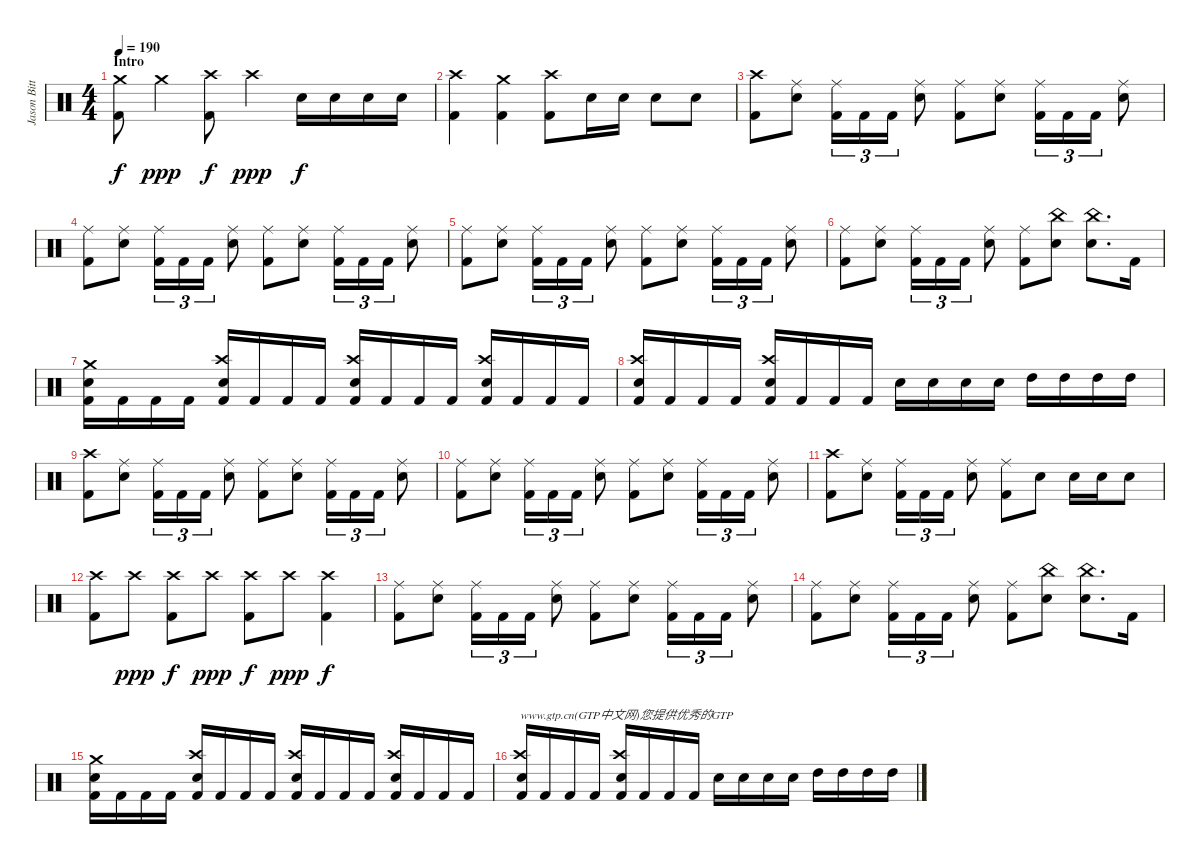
\track ("Jason Bittner" "Jason Bitt") {instrument percussion}
\staff {score}
\articulation defaults
\ts (4 4)
\section ("" "Intro")
\tempo 190
\clef neutral
\ks c
("Crash medium (hit)" "Kick (hit) 2").8{dy f} "Crash medium (hit)".4{dy ppp} ("Crash high (hit)" "Kick (hit) 2").8{dy f} "Crash high (hit)".4{dy ppp} "Electric Snare (hit)".16{dy f} "Electric Snare (hit)".16 "Electric Snare (hit)".16 "Electric Snare (hit)".16 |
("Crash high (hit)" "Kick (hit) 2").4 ("Crash medium (hit)" "Kick (hit) 2").4 ("Crash high (hit)" "Kick (hit) 2").8 "Electric Snare (hit)".16 "Electric Snare (hit)".16 "Electric Snare (hit)".8 "Electric Snare (hit)".8 |
("Crash high (hit)" "Kick (hit) 2").8 ("Ride (middle)" "Electric Snare (hit)").8 ("Ride (middle)" "Kick (hit) 2").16{tu (3 2)} "Kick (hit) 2".16{tu (3 2)} "Kick (hit) 2".16{tu (3 2)} ("Ride (middle)" "Electric Snare (hit)").8 ("Ride (middle)" "Kick (hit) 2").8 ("Ride (middle)" "Electric Snare (hit)").8 ("Ride (middle)" "Kick (hit) 2").16{tu (3 2)} "Kick (hit) 2".16{tu (3 2)} "Kick (hit) 2".16{tu (3 2)} ("Ride (middle)" "Electric Snare (hit)").8 |
("Ride (middle)" "Kick (hit) 2").8 ("Ride (middle)" "Electric Snare (hit)").8 ("Ride (middle)" "Kick (hit) 2").16{tu (3 2)} "Kick (hit) 2".16{tu (3 2)} "Kick (hit) 2".16{tu (3 2)} ("Ride (middle)" "Electric Snare (hit)").8 ("Ride (middle)" "Kick (hit) 2").8 ("Ride (middle)" "Electric Snare (hit)").8 ("Ride (middle)" "Kick (hit) 2").16{tu (3 2)} "Kick (hit) 2".16{tu (3 2)} "Kick (hit) 2".16{tu (3 2)} ("Ride (middle)" "Electric Snare (hit)").8 |
("Ride (middle)" "Kick (hit) 2").8 ("Ride (middle)" "Electric Snare (hit)").8 ("Ride (middle)" "Kick (hit) 2").16{tu (3 2)} "Kick (hit) 2".16{tu (3 2)} "Kick (hit) 2".16{tu (3 2)} ("Ride (middle)" "Electric Snare (hit)").8 ("Ride (middle)" "Kick (hit) 2").8 ("Ride (middle)" "Electric Snare (hit)").8 ("Ride (middle)" "Kick (hit) 2").16{tu (3 2)} "Kick (hit) 2".16{tu (3 2)} "Kick (hit) 2".16{tu (3 2)} ("Ride (middle)" "Electric Snare (hit)").8 |
("Ride (middle)" "Kick (hit) 2").8 ("Ride (middle)" "Electric Snare (hit)").8 ("Ride (middle)" "Kick (hit) 2").16{tu (3 2)} "Kick (hit) 2".16{tu (3 2)} "Kick (hit) 2".16{tu (3 2)} ("Ride (middle)" "Electric Snare (hit)").8 ("Ride (middle)" "Kick (hit) 2").8 ("China (hit)" "Electric Snare (hit)").8 ("China (hit)" "Electric Snare (hit)").8{d} "Kick (hit) 2".16 |
("Crash medium (hit)" "Electric Snare (hit)" "Kick (hit) 2").16 "Kick (hit) 2".16 "Kick (hit) 2".16 "Kick (hit) 2".16 ("Crash high (hit)" "Electric Snare (hit)" "Kick (hit) 2").16 "Kick (hit) 2".16 "Kick (hit) 2".16 "Kick (hit) 2".16 ("Crash high (hit)" "Electric Snare (hit)" "Kick (hit) 2").16 "Kick (hit) 2".16 "Kick (hit) 2".16 "Kick (hit) 2".16 ("Crash high (hit)" "Electric Snare (hit)" "Kick (hit) 2").16 "Kick (hit) 2".16 "Kick (hit) 2".16 "Kick (hit) 2".16 |
("Crash high (hit)" "Electric Snare (hit)" "Kick (hit) 2").16 "Kick (hit) 2".16 "Kick (hit) 2".16 "Kick (hit) 2".16 ("Crash high (hit)" "Electric Snare (hit)" "Kick (hit) 2").16 "Kick (hit) 2".16 "Kick (hit) 2".16 "Kick (hit) 2".16 "Electric Snare (hit)".16 "Electric Snare (hit)".16 "Electric Snare (hit)".16 "Electric Snare (hit)".16 "High Tom (hit)".16 "High Tom (hit)".16 "High Tom (hit)".16 "High Tom (hit)".16 |
("Crash high (hit)" "Kick (hit) 2").8 ("Ride (middle)" "Electric Snare (hit)").8 ("Ride (middle)" "Kick (hit) 2").16{tu (3 2)} "Kick (hit) 2".16{tu (3 2)} "Kick (hit) 2".16{tu (3 2)} ("Ride (middle)" "Electric Snare (hit)").8 ("Ride (middle)" "Kick (hit) 2").8 ("Ride (middle)" "Electric Snare (hit)").8 ("Ride (middle)" "Kick (hit) 2").16{tu (3 2)} "Kick (hit) 2".16{tu (3 2)} "Kick (hit) 2".16{tu (3 2)} ("Ride (middle)" "Electric Snare (hit)").8 |
("Ride (middle)" "Kick (hit) 2").8 ("Ride (middle)" "Electric Snare (hit)").8 ("Ride (middle)" "Kick (hit) 2").16{tu (3 2)} "Kick (hit) 2".16{tu (3 2)} "Kick (hit) 2".16{tu (3 2)} ("Ride (middle)" "Electric Snare (hit)").8 ("Ride (middle)" "Kick (hit) 2").8 ("Ride (middle)" "Electric Snare (hit)").8 ("Ride (middle)" "Kick (hit) 2").16{tu (3 2)} "Kick (hit) 2".16{tu (3 2)} "Kick (hit) 2".16{tu (3 2)} ("Ride (middle)" "Electric Snare (hit)").8 |
("Crash high (hit)" "Kick (hit) 2").8 ("Ride (middle)" "Electric Snare (hit)").8 ("Ride (middle)" "Kick (hit) 2").16{tu (3 2)} "Kick (hit) 2".16{tu (3 2)} "Kick (hit) 2".16{tu (3 2)} ("Ride (middle)" "Electric Snare (hit)").8 ("Ride (middle)" "Kick (hit) 2").8 "Electric Snare (hit)".8 "Electric Snare (hit)".16 "Electric Snare (hit)".16 "Electric Snare (hit)".8 |
("Crash high (hit)" "Kick (hit) 2").8 "Crash high (hit)".8{dy ppp} ("Crash high (hit)" "Kick (hit) 2").8{dy f} "Crash high (hit)".8{dy ppp} ("Crash high (hit)" "Kick (hit) 2").8{dy f} "Crash high (hit)".8{dy ppp} ("Crash high (hit)" "Kick (hit) 2").4{dy f} |
("Ride (middle)" "Kick (hit) 2").8 ("Ride (middle)" "Electric Snare (hit)").8 ("Ride (middle)" "Kick (hit) 2").16{tu (3 2)} "Kick (hit) 2".16{tu (3 2)} "Kick (hit) 2".16{tu (3 2)} ("Ride (middle)" "Electric Snare (hit)").8 ("Ride (middle)" "Kick (hit) 2").8 ("Ride (middle)" "Electric Snare (hit)").8 ("Ride (middle)" "Kick (hit) 2").16{tu (3 2)} "Kick (hit) 2".16{tu (3 2)} "Kick (hit) 2".16{tu (3 2)} ("Ride (middle)" "Electric Snare (hit)").8 |
("Ride (middle)" "Kick (hit) 2").8 ("Ride (middle)" "Electric Snare (hit)").8 ("Ride (middle)" "Kick (hit) 2").16{tu (3 2)} "Kick (hit) 2".16{tu (3 2)} "Kick (hit) 2".16{tu (3 2)} ("Ride (middle)" "Electric Snare (hit)").8 ("Ride (middle)" "Kick (hit) 2").8 ("China (hit)" "Electric Snare (hit)").8 ("China (hit)" "Electric Snare (hit)").8{d} "Kick (hit) 2".16 |
("Crash medium (hit)" "Electric Snare (hit)" "Kick (hit) 2").16 "Kick (hit) 2".16 "Kick (hit) 2".16 "Kick (hit) 2".16 ("Crash high (hit)" "Electric Snare (hit)" "Kick (hit) 2").16 "Kick (hit) 2".16 "Kick (hit) 2".16 "Kick (hit) 2".16 ("Crash high (hit)" "Electric Snare (hit)" "Kick (hit) 2").16 "Kick (hit) 2".16 "Kick (hit) 2".16 "Kick (hit) 2".16 ("Crash high (hit)" "Electric Snare (hit)" "Kick (hit) 2").16 "Kick (hit) 2".16 "Kick (hit) 2".16 "Kick (hit) 2".16 |
("Crash high (hit)" "Electric Snare (hit)" "Kick (hit) 2").16{txt "www.gtp.cn(GTP中文网)您提供优秀的GTP"} "Kick (hit) 2".16 "Kick (hit) 2".16 "Kick (hit) 2".16 ("Crash high (hit)" "Electric Snare (hit)" "Kick (hit) 2").16 "Kick (hit) 2".16 "Kick (hit) 2".16 "Kick (hit) 2".16 "Electric Snare (hit)".16 "Electric Snare (hit)".16 "Electric Snare (hit)".16 "Electric Snare (hit)".16 "High Tom (hit)".16 "High Tom (hit)".16 "High Tom (hit)".16 "High Tom (hit)".16
